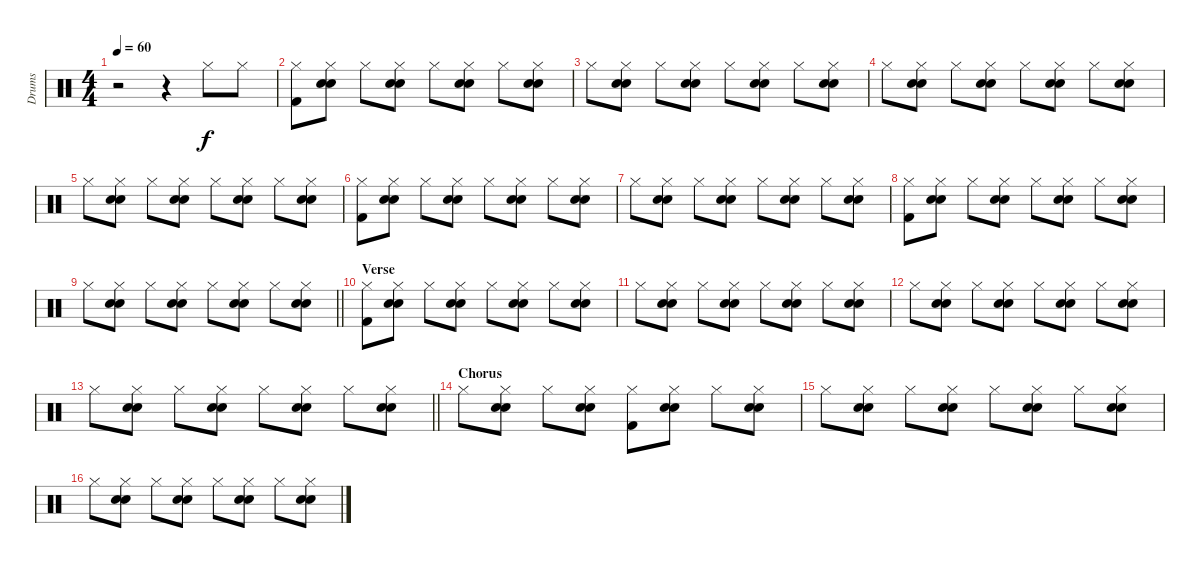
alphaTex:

\track ("Drums" "Drums") {instrument percussion}
\staff {score}
\articulation defaults
\ts (4 4)
\tempo 60
\clef neutral
\ks c
r.2{dy f} r.4 "Hi-Hat (closed)".8 "Hi-Hat (closed)".8 |
("Hi-Hat (closed)" "Kick (hit) 2").8 ("Hi-Hat (closed)" "Electric Snare (hit)" "Snare (hit) 2").8 "Hi-Hat (closed)".8 ("Hi-Hat (closed)" "Electric Snare (hit)" "Snare (hit) 2").8 "Hi-Hat (closed)".8 ("Hi-Hat (closed)" "Electric Snare (hit)" "Snare (hit) 2").8 "Hi-Hat (closed)".8 ("Hi-Hat (closed)" "Electric Snare (hit)" "Snare (hit) 2").8 |
"Hi-Hat (closed)".8 ("Hi-Hat (closed)" "Electric Snare (hit)" "Snare (hit) 2").8 "Hi-Hat (closed)".8 ("Hi-Hat (closed)" "Electric Snare (hit)" "Snare (hit) 2").8 "Hi-Hat (closed)".8 ("Hi-Hat (closed)" "Electric Snare (hit)" "Snare (hit) 2").8 "Hi-Hat (closed)".8 ("Hi-Hat (closed)" "Electric Snare (hit)" "Snare (hit) 2").8 |
"Hi-Hat (closed)".8 ("Hi-Hat (closed)" "Electric Snare (hit)" "Snare (hit) 2").8 "Hi-Hat (closed)".8 ("Hi-Hat (closed)" "Electric Snare (hit)" "Snare (hit) 2").8 "Hi-Hat (closed)".8 ("Hi-Hat (closed)" "Electric Snare (hit)" "Snare (hit) 2").8 "Hi-Hat (closed)".8 ("Hi-Hat (closed)" "Electric Snare (hit)" "Snare (hit) 2").8 |
"Hi-Hat (closed)".8 ("Hi-Hat (closed)" "Electric Snare (hit)" "Snare (hit) 2").8 "Hi-Hat (closed)".8 ("Hi-Hat (closed)" "Electric Snare (hit)" "Snare (hit) 2").8 "Hi-Hat (closed)".8 ("Hi-Hat (closed)" "Electric Snare (hit)" "Snare (hit) 2").8 "Hi-Hat (closed)".8 ("Hi-Hat (closed)" "Electric Snare (hit)" "Snare (hit) 2").8 |
("Hi-Hat (closed)" "Kick (hit) 2").8 ("Hi-Hat (closed)" "Electric Snare (hit)" "Snare (hit) 2").8 "Hi-Hat (closed)".8 ("Hi-Hat (closed)" "Electric Snare (hit)" "Snare (hit) 2").8 "Hi-Hat (closed)".8 ("Hi-Hat (closed)" "Electric Snare (hit)" "Snare (hit) 2").8 "Hi-Hat (closed)".8 ("Hi-Hat (closed)" "Electric Snare (hit)" "Snare (hit) 2").8 |
"Hi-Hat (closed)".8 ("Hi-Hat (closed)" "Electric Snare (hit)" "Snare (hit) 2").8 "Hi-Hat (closed)".8 ("Hi-Hat (closed)" "Electric Snare (hit)" "Snare (hit) 2").8 "Hi-Hat (closed)".8 ("Hi-Hat (closed)" "Electric Snare (hit)" "Snare (hit) 2").8 "Hi-Hat (closed)".8 ("Hi-Hat (closed)" "Electric Snare (hit)" "Snare (hit) 2").8 |
("Hi-Hat (closed)" "Kick (hit) 2").8 ("Hi-Hat (closed)" "Electric Snare (hit)" "Snare (hit) 2").8 "Hi-Hat (closed)".8 ("Hi-Hat (closed)" "Electric Snare (hit)" "Snare (hit) 2").8 "Hi-Hat (closed)".8 ("Hi-Hat (closed)" "Electric Snare (hit)" "Snare (hit) 2").8 "Hi-Hat (closed)".8 ("Hi-Hat (closed)" "Electric Snare (hit)" "Snare (hit) 2").8 |
\barLineRight lightlight "Hi-Hat (closed)".8
("Hi-Hat (closed)" "Electric Snare (hit)" "Snare (hit) 2").8 "Hi-Hat (closed)".8 ("Hi-Hat (closed)" "Electric Snare (hit)" "Snare (hit) 2").8 "Hi-Hat (closed)".8 ("Hi-Hat (closed)" "Electric Snare (hit)" "Snare (hit) 2").8 "Hi-Hat (closed)".8 ("Hi-Hat (closed)" "Electric Snare (hit)" "Snare (hit) 2").8 |
\section ("" "Verse")
("Hi-Hat (closed)" "Kick (hit) 2").8 ("Hi-Hat (closed)" "Electric Snare (hit)" "Snare (hit) 2").8 "Hi-Hat (closed)".8 ("Hi-Hat (closed)" "Electric Snare (hit)" "Snare (hit) 2").8 "Hi-Hat (closed)".8 ("Hi-Hat (closed)" "Electric Snare (hit)" "Snare (hit) 2").8 "Hi-Hat (closed)".8 ("Hi-Hat (closed)" "Electric Snare (hit)" "Snare (hit) 2").8 |
"Hi-Hat (closed)".8 ("Hi-Hat (closed)" "Electric Snare (hit)" "Snare (hit) 2").8 "Hi-Hat (closed)".8 ("Hi-Hat (closed)" "Electric Snare (hit)" "Snare (hit) 2").8 "Hi-Hat (closed)".8 ("Hi-Hat (closed)" "Electric Snare (hit)" "Snare (hit) 2").8 "Hi-Hat (closed)".8 ("Hi-Hat (closed)" "Electric Snare (hit)" "Snare (hit) 2").8 |
"Hi-Hat (closed)".8 ("Hi-Hat (closed)" "Electric Snare (hit)" "Snare (hit) 2").8 "Hi-Hat (closed)".8 ("Hi-Hat (closed)" "Electric Snare (hit)" "Snare (hit) 2").8 "Hi-Hat (closed)".8 ("Hi-Hat (closed)" "Electric Snare (hit)" "Snare (hit) 2").8 "Hi-Hat (closed)".8 ("Hi-Hat (closed)" "Electric Snare (hit)" "Snare (hit) 2").8 |
\barLineRight lightlight "Hi-Hat (closed)".8
("Hi-Hat (closed)" "Electric Snare (hit)" "Snare (hit) 2").8 "Hi-Hat (closed)".8 ("Hi-Hat (closed)" "Electric Snare (hit)" "Snare (hit) 2").8 "Hi-Hat (closed)".8 ("Hi-Hat (closed)" "Electric Snare (hit)" "Snare (hit) 2").8 "Hi-Hat (closed)".8 ("Hi-Hat (closed)" "Electric Snare (hit)" "Snare (hit) 2").8 |
\section ("" "Chorus")
"Hi-Hat (closed)".8 ("Hi-Hat (closed)" "Electric Snare (hit)" "Snare (hit) 2").8 "Hi-Hat (closed)".8 ("Hi-Hat (closed)" "Electric Snare (hit)" "Snare (hit) 2").8 ("Hi-Hat (closed)" "Kick (hit) 2").8 ("Hi-Hat (closed)" "Electric Snare (hit)" "Snare (hit) 2").8 "Hi-Hat (closed)".8 ("Hi-Hat (closed)" "Electric Snare (hit)" "Snare (hit) 2").8 |
"Hi-Hat (closed)".8 ("Hi-Hat (closed)" "Electric Snare (hit)" "Snare (hit) 2").8 "Hi-Hat (closed)".8 ("Hi-Hat (closed)" "Electric Snare (hit)" "Snare (hit) 2").8 "Hi-Hat (closed)".8 ("Hi-Hat (closed)" "Electric Snare (hit)" "Snare (hit) 2").8 "Hi-Hat (closed)".8 ("Hi-Hat (closed)" "Electric Snare (hit)" "Snare (hit) 2").8 |
"Hi-Hat (closed)".8 ("Hi-Hat (closed)" "Electric Snare (hit)" "Snare (hit) 2").8 "Hi-Hat (closed)".8 ("Hi-Hat (closed)" "Electric Snare (hit)" "Snare (hit) 2").8 "Hi-Hat (closed)".8 ("Hi-Hat (closed)" "Electric Snare (hit)" "Snare (hit) 2").8 "Hi-Hat (closed)".8 ("Hi-Hat (closed)" "Electric Snare (hit)" "Snare (hit) 2").8
